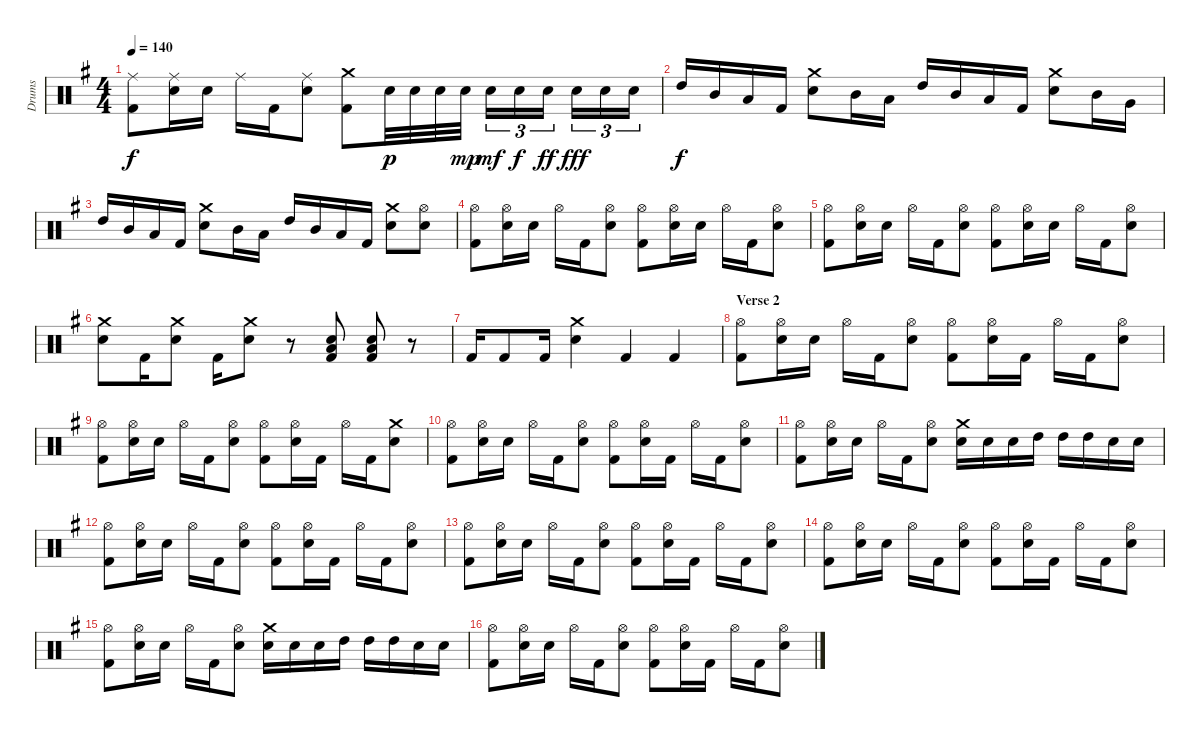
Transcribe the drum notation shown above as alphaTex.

\track ("Drums" "Drums") {instrument percussion}
\staff {score}
\articulation defaults
\ts (4 4)
\tempo 140
\clef neutral
\ks g
("Ride (middle)" "Kick (hit) 2").8{dy f} ("Ride (middle)" "Electric Snare (hit)").16 "Electric Snare (hit)".16 "Ride (middle)".16 "Kick (hit) 2".16 ("Ride (middle)" "Electric Snare (hit)").8 ("Crash medium (hit)" "Kick (hit) 2").8 "Electric Snare (hit)".32{dy p} "Electric Snare (hit)".32 "Electric Snare (hit)".32 "Electric Snare (hit)".32{dy mp} "Electric Snare (hit)".16{tu (3 2) dy mf} "Electric Snare (hit)".16{tu (3 2) dy f} "Electric Snare (hit)".16{tu (3 2) dy ff} "Electric Snare (hit)".16{tu (3 2) dy fff} "Electric Snare (hit)".16{tu (3 2)} "Electric Snare (hit)".16{tu (3 2)} |
"High Tom (hit)".16{dy f} "Mid Tom (hit)".16 "Low Tom (hit)".16 "Kick (hit) 2".16 ("Crash medium (hit)" "Electric Snare (hit)").8 "Mid Tom (hit)".16 "Low Tom (hit)".16 "High Tom (hit)".16 "Mid Tom (hit)".16 "Low Tom (hit)".16 "Kick (hit) 2".16 ("Crash medium (hit)" "Electric Snare (hit)").8 "Mid Tom (hit)".16 "Very Low Tom (hit)".16 |
"High Tom (hit)".16 "Mid Tom (hit)".16 "Low Tom (hit)".16 "Kick (hit) 2".16 ("Crash medium (hit)" "Electric Snare (hit)").8 "Mid Tom (hit)".16 "Low Tom (hit)".16 "High Tom (hit)".16 "Mid Tom (hit)".16 "Low Tom (hit)".16 "Kick (hit) 2".16 ("Crash medium (hit)" "Electric Snare (hit)").8 ("Hi-Hat (open)" "Electric Snare (hit)").8 |
("Hi-Hat (open)" "Kick (hit) 2").8 ("Hi-Hat (open)" "Electric Snare (hit)").16 "Electric Snare (hit)".16 "Hi-Hat (open)".16 "Kick (hit) 2".16 ("Hi-Hat (open)" "Electric Snare (hit)").8 ("Hi-Hat (open)" "Kick (hit) 2").8 ("Hi-Hat (open)" "Electric Snare (hit)").16 "Electric Snare (hit)".16 "Hi-Hat (open)".16 "Kick (hit) 2".16 ("Hi-Hat (open)" "Electric Snare (hit)").8 |
("Hi-Hat (open)" "Kick (hit) 2").8 ("Hi-Hat (open)" "Electric Snare (hit)").16 "Electric Snare (hit)".16 "Hi-Hat (open)".16 "Kick (hit) 2".16 ("Hi-Hat (open)" "Electric Snare (hit)").8 ("Hi-Hat (open)" "Kick (hit) 2").8 ("Hi-Hat (open)" "Electric Snare (hit)").16 "Electric Snare (hit)".16 "Hi-Hat (open)".16 "Kick (hit) 2".16 ("Hi-Hat (open)" "Electric Snare (hit)").8 |
("Crash medium (hit)" "Electric Snare (hit)").8 "Kick (hit) 2".16 ("Crash medium (hit)" "Electric Snare (hit)").8 "Kick (hit) 2".16 ("Crash medium (hit)" "Electric Snare (hit)").8 r.8 ("Low Tom (hit)" "Electric Snare (hit)" "Kick (hit) 2").8 ("Low Tom (hit)" "Electric Snare (hit)" "Kick (hit) 2").8 r.8 |
"Kick (hit) 2".16 "Kick (hit) 2".8 "Kick (hit) 2".16 ("Crash medium (hit)" "Electric Snare (hit)").4 "Kick (hit) 2".4 "Kick (hit) 2".4 |
\section ("" "Verse 2")
("Hi-Hat (open)" "Kick (hit) 2").8 ("Hi-Hat (open)" "Electric Snare (hit)").16 "Electric Snare (hit)".16 "Hi-Hat (open)".16 "Kick (hit) 2".16 ("Hi-Hat (open)" "Electric Snare (hit)").8 ("Hi-Hat (open)" "Kick (hit) 2").8 ("Hi-Hat (open)" "Electric Snare (hit)").16 "Kick (hit) 2".16 "Hi-Hat (open)".16 "Kick (hit) 2".16 ("Hi-Hat (open)" "Electric Snare (hit)").8 |
("Hi-Hat (open)" "Kick (hit) 2").8 ("Hi-Hat (open)" "Electric Snare (hit)").16 "Electric Snare (hit)".16 "Hi-Hat (open)".16 "Kick (hit) 2".16 ("Hi-Hat (open)" "Electric Snare (hit)").8 ("Hi-Hat (open)" "Kick (hit) 2").8 ("Hi-Hat (open)" "Electric Snare (hit)").16 "Kick (hit) 2".16 "Hi-Hat (open)".16 "Kick (hit) 2".16 ("Crash medium (hit)" "Electric Snare (hit)").8 |
("Hi-Hat (open)" "Kick (hit) 2").8 ("Hi-Hat (open)" "Electric Snare (hit)").16 "Electric Snare (hit)".16 "Hi-Hat (open)".16 "Kick (hit) 2".16 ("Hi-Hat (open)" "Electric Snare (hit)").8 ("Hi-Hat (open)" "Kick (hit) 2").8 ("Hi-Hat (open)" "Electric Snare (hit)").16 "Kick (hit) 2".16 "Hi-Hat (open)".16 "Kick (hit) 2".16 ("Hi-Hat (open)" "Electric Snare (hit)").8 |
("Hi-Hat (open)" "Kick (hit) 2").8 ("Hi-Hat (open)" "Electric Snare (hit)").16 "Electric Snare (hit)".16 "Hi-Hat (open)".16 "Kick (hit) 2".16 ("Hi-Hat (open)" "Electric Snare (hit)").8 ("Crash medium (hit)" "Electric Snare (hit)").16 "Electric Snare (hit)".16 "Electric Snare (hit)".16 "High Tom (hit)".16 "High Tom (hit)".16 "High Tom (hit)".16 "Electric Snare (hit)".16 "Electric Snare (hit)".16 |
("Hi-Hat (open)" "Kick (hit) 2").8 ("Hi-Hat (open)" "Electric Snare (hit)").16 "Electric Snare (hit)".16 "Hi-Hat (open)".16 "Kick (hit) 2".16 ("Hi-Hat (open)" "Electric Snare (hit)").8 ("Hi-Hat (open)" "Kick (hit) 2").8 ("Hi-Hat (open)" "Electric Snare (hit)").16 "Kick (hit) 2".16 "Hi-Hat (open)".16 "Kick (hit) 2".16 ("Hi-Hat (open)" "Electric Snare (hit)").8 |
("Hi-Hat (open)" "Kick (hit) 2").8 ("Hi-Hat (open)" "Electric Snare (hit)").16 "Electric Snare (hit)".16 "Hi-Hat (open)".16 "Kick (hit) 2".16 ("Hi-Hat (open)" "Electric Snare (hit)").8 ("Hi-Hat (open)" "Kick (hit) 2").8 ("Hi-Hat (open)" "Electric Snare (hit)").16 "Kick (hit) 2".16 "Hi-Hat (open)".16 "Kick (hit) 2".16 ("Hi-Hat (open)" "Electric Snare (hit)").8 |
("Hi-Hat (open)" "Kick (hit) 2").8 ("Hi-Hat (open)" "Electric Snare (hit)").16 "Electric Snare (hit)".16 "Hi-Hat (open)".16 "Kick (hit) 2".16 ("Hi-Hat (open)" "Electric Snare (hit)").8 ("Hi-Hat (open)" "Kick (hit) 2").8 ("Hi-Hat (open)" "Electric Snare (hit)").16 "Kick (hit) 2".16 "Hi-Hat (open)".16 "Kick (hit) 2".16 ("Hi-Hat (open)" "Electric Snare (hit)").8 |
("Hi-Hat (open)" "Kick (hit) 2").8 ("Hi-Hat (open)" "Electric Snare (hit)").16 "Electric Snare (hit)".16 "Hi-Hat (open)".16 "Kick (hit) 2".16 ("Hi-Hat (open)" "Electric Snare (hit)").8 ("Crash medium (hit)" "Electric Snare (hit)").16 "Electric Snare (hit)".16 "Electric Snare (hit)".16 "High Tom (hit)".16 "High Tom (hit)".16 "High Tom (hit)".16 "Electric Snare (hit)".16 "Electric Snare (hit)".16 |
("Hi-Hat (open)" "Kick (hit) 2").8 ("Hi-Hat (open)" "Electric Snare (hit)").16 "Electric Snare (hit)".16 "Hi-Hat (open)".16 "Kick (hit) 2".16 ("Hi-Hat (open)" "Electric Snare (hit)").8 ("Hi-Hat (open)" "Kick (hit) 2").8 ("Hi-Hat (open)" "Electric Snare (hit)").16 "Kick (hit) 2".16 "Hi-Hat (open)".16 "Kick (hit) 2".16 ("Hi-Hat (open)" "Electric Snare (hit)").8
